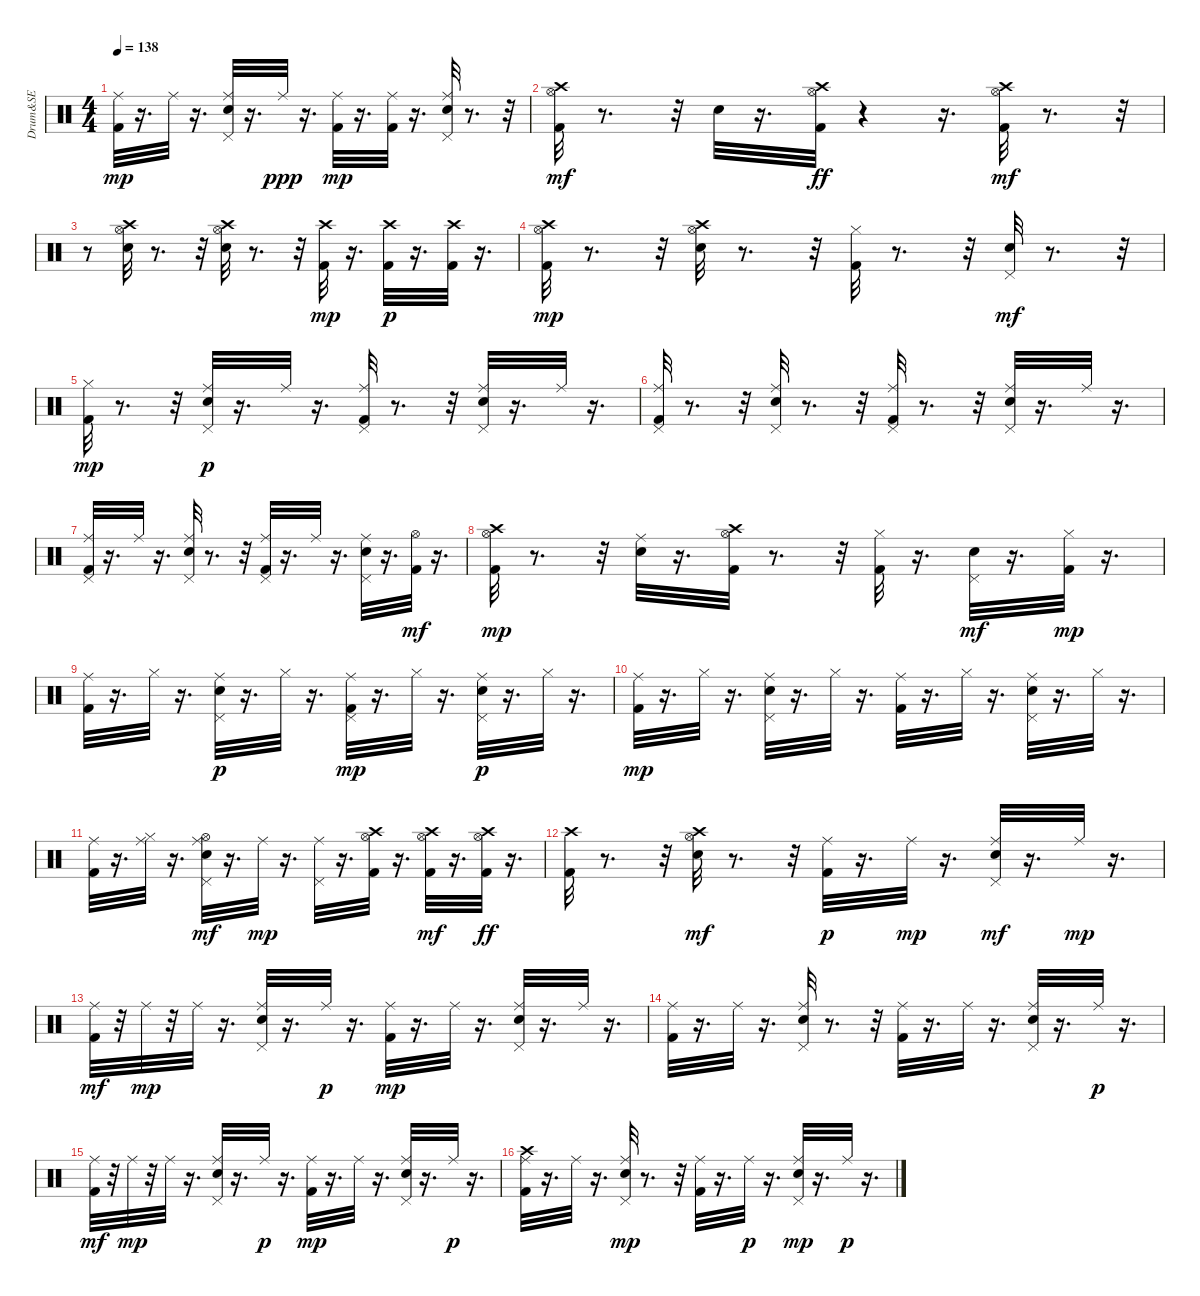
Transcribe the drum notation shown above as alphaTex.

\track ("Drum&SE" "Drum&SE") {instrument percussion}
\staff {score}
\articulation defaults
\ts (4 4)
\tempo 138
\clef neutral
\ks c
("Kick (hit) 2" "Ride (middle)").32{dy mp} r.16{d} "Ride (middle)".32 r.16{d} ("Snare (hit) 2" "Pedal Hi-Hat (hit)" "Ride (middle)").32 r.16{d} "Ride (middle)".32{dy ppp} r.16{d} ("Kick (hit) 2" "Ride (middle)").32{dy mp} r.16{d} ("Kick (hit) 2" "Ride (middle)").32 r.16{d} ("Snare (hit) 2" "Pedal Hi-Hat (hit)" "Ride (middle)").32 r.8{d} r.32 |
("Kick (hit) 2" "Hi-Hat (open)" "Crash high (hit)").32{dy mf} r.8{d} r.32 "Snare (hit) 2".32 r.16{d} ("Kick (hit) 2" "Hi-Hat (open)" "Crash high (hit)").32{dy ff} r.4 r.16{d} ("Kick (hit) 2" "Hi-Hat (open)" "Crash high (hit)").32{dy mf} r.8{d} r.32 |
r.8 ("Snare (hit) 2" "Hi-Hat (open)" "Crash high (hit)").32 r.8{d} r.32 ("Snare (hit) 2" "Hi-Hat (open)" "Crash high (hit)").32 r.8{d} r.32 ("Kick (hit) 2" "Crash high (hit)").32{dy mp} r.16{d} ("Kick (hit) 2" "Crash high (hit)").32{dy p} r.16{d} ("Kick (hit) 2" "Crash high (hit)").32 r.16{d} |
("Kick (hit) 2" "Hi-Hat (open)" "Crash high (hit)").32{dy mp} r.8{d} r.32 ("Hi-Hat (open)" "Snare (hit) 2" "Crash high (hit)").32 r.8{d} r.32 ("Kick (hit) 2" "Hi-Hat (closed)").32 r.8{d} r.32 ("Snare (hit) 2" "Pedal Hi-Hat (hit)").32{dy mf} r.8{d} r.32 |
("Kick (hit) 2" "Hi-Hat (closed)").32{dy mp} r.8{d} r.32 ("Snare (hit) 2" "Pedal Hi-Hat (hit)" "Ride (middle)").32{dy p} r.16{d} "Ride (middle)".32 r.16{d} ("Kick (hit) 2" "Pedal Hi-Hat (hit)" "Ride (middle)").32 r.8{d} r.32 ("Snare (hit) 2" "Pedal Hi-Hat (hit)" "Ride (middle)").32 r.16{d} "Ride (middle)".32 r.16{d} |
("Kick (hit) 2" "Pedal Hi-Hat (hit)" "Ride (middle)").32 r.8{d} r.32 ("Snare (hit) 2" "Pedal Hi-Hat (hit)" "Ride (middle)").32 r.8{d} r.32 ("Kick (hit) 2" "Pedal Hi-Hat (hit)" "Ride (middle)").32 r.8{d} r.32 ("Snare (hit) 2" "Pedal Hi-Hat (hit)" "Ride (middle)").32 r.16{d} "Ride (middle)".32 r.16{d} |
("Kick (hit) 2" "Pedal Hi-Hat (hit)" "Ride (middle)").32 r.16{d} "Ride (middle)".32 r.16{d} ("Snare (hit) 2" "Pedal Hi-Hat (hit)" "Ride (middle)").32 r.8{d} r.32 ("Kick (hit) 2" "Pedal Hi-Hat (hit)" "Ride (middle)").32 r.16{d} "Ride (middle)".32 r.16{d} ("Snare (hit) 2" "Pedal Hi-Hat (hit)" "Ride (middle)").32 r.16{d} ("Kick (hit) 2" "Hi-Hat (open)").32{dy mf} r.16{d} |
("Kick (hit) 2" "Hi-Hat (open)" "Crash high (hit)").32{dy mp} r.8{d} r.32 ("Snare (hit) 2" "Ride (middle)").32 r.16{d} ("Kick (hit) 2" "Hi-Hat (open)" "Crash high (hit)").32 r.8{d} r.32 ("Kick (hit) 2" "Hi-Hat (closed)").32 r.16{d} ("Snare (hit) 2" "Pedal Hi-Hat (hit)").32{dy mf} r.16{d} ("Kick (hit) 2" "Hi-Hat (closed)").32{dy mp} r.16{d} |
("Kick (hit) 2" "Ride (middle)").32 r.16{d} "Hi-Hat (closed)".32 r.16{d} ("Snare (hit) 2" "Pedal Hi-Hat (hit)" "Ride (middle)").32{dy p} r.16{d} "Hi-Hat (closed)".32 r.16{d} ("Kick (hit) 2" "Pedal Hi-Hat (hit)" "Ride (middle)").32{dy mp} r.16{d} "Hi-Hat (closed)".32 r.16{d} ("Snare (hit) 2" "Pedal Hi-Hat (hit)" "Ride (middle)").32{dy p} r.16{d} "Hi-Hat (closed)".32 r.16{d} |
("Kick (hit) 2" "Ride (middle)").32{dy mp} r.16{d} "Hi-Hat (closed)".32 r.16{d} ("Snare (hit) 2" "Pedal Hi-Hat (hit)" "Ride (middle)").32 r.16{d} "Hi-Hat (closed)".32 r.16{d} ("Kick (hit) 2" "Ride (middle)").32 r.16{d} "Hi-Hat (closed)".32 r.16{d} ("Snare (hit) 2" "Pedal Hi-Hat (hit)" "Ride (middle)").32 r.16{d} "Hi-Hat (closed)".32 r.16{d} |
("Kick (hit) 2" "Ride (middle)").32 r.16{d} ("Hi-Hat (closed)" "Ride (middle)").32 r.16{d} ("Snare (hit) 2" "Pedal Hi-Hat (hit)" "Hi-Hat (open)" "Ride (middle)").32{dy mf} r.16{d} "Ride (middle)".32{dy mp} r.16{d} ("Pedal Hi-Hat (hit)" "Ride (middle)").32 r.16{d} ("Kick (hit) 2" "Hi-Hat (open)" "Crash high (hit)").32 r.16{d} ("Kick (hit) 2" "Hi-Hat (open)" "Crash high (hit)").32{dy mf} r.16{d} ("Kick (hit) 2" "Hi-Hat (open)" "Crash high (hit)").32{dy ff} r.16{d} |
("Kick (hit) 2" "Crash high (hit)").32 r.8{d} r.32 ("Snare (hit) 2" "Hi-Hat (open)" "Crash high (hit)").32{dy mf} r.8{d} r.32 ("Kick (hit) 2" "Ride (middle)").32{dy p} r.16{d} "Ride (middle)".32{dy mp} r.16{d} ("Snare (hit) 2" "Pedal Hi-Hat (hit)" "Ride (middle)").32{dy mf} r.16{d} "Ride (middle)".32{dy mp} r.16{d} |
("Kick (hit) 2" "Ride (middle)").32{dy mf} r.32 "Ride (middle)".32{dy mp} r.32 "Ride (middle)".32 r.16{d} ("Snare (hit) 2" "Pedal Hi-Hat (hit)" "Ride (middle)").32 r.16{d} "Ride (middle)".32{dy p} r.16{d} ("Kick (hit) 2" "Ride (middle)").32{dy mp} r.16{d} "Ride (middle)".32 r.16{d} ("Snare (hit) 2" "Pedal Hi-Hat (hit)" "Ride (middle)").32 r.16{d} "Ride (middle)".32 r.16{d} |
("Kick (hit) 2" "Ride (middle)").32 r.16{d} "Ride (middle)".32 r.16{d} ("Snare (hit) 2" "Pedal Hi-Hat (hit)" "Ride (middle)").32 r.8{d} r.32 ("Kick (hit) 2" "Ride (middle)").32 r.16{d} "Ride (middle)".32 r.16{d} ("Snare (hit) 2" "Pedal Hi-Hat (hit)" "Ride (middle)").32 r.16{d} "Ride (middle)".32{dy p} r.16{d} |
("Kick (hit) 2" "Ride (middle)").32{dy mf} r.32 "Ride (middle)".32{dy mp} r.32 "Ride (middle)".32 r.16{d} ("Snare (hit) 2" "Pedal Hi-Hat (hit)" "Ride (middle)").32 r.16{d} "Ride (middle)".32{dy p} r.16{d} ("Kick (hit) 2" "Ride (middle)").32{dy mp} r.16{d} "Ride (middle)".32 r.16{d} ("Snare (hit) 2" "Pedal Hi-Hat (hit)" "Ride (middle)").32 r.16{d} "Ride (middle)".32{dy p} r.16{d} |
("Kick (hit) 2" "Crash high (hit)" "Ride (middle)").32 r.16{d} "Ride (middle)".32 r.16{d} ("Snare (hit) 2" "Pedal Hi-Hat (hit)" "Ride (middle)").32{dy mp} r.8{d} r.32 ("Kick (hit) 2" "Ride (middle)").32 r.16{d} "Ride (middle)".32{dy p} r.16{d} ("Snare (hit) 2" "Pedal Hi-Hat (hit)" "Ride (middle)").32{dy mp} r.16{d} "Ride (middle)".32{dy p} r.16{d}
